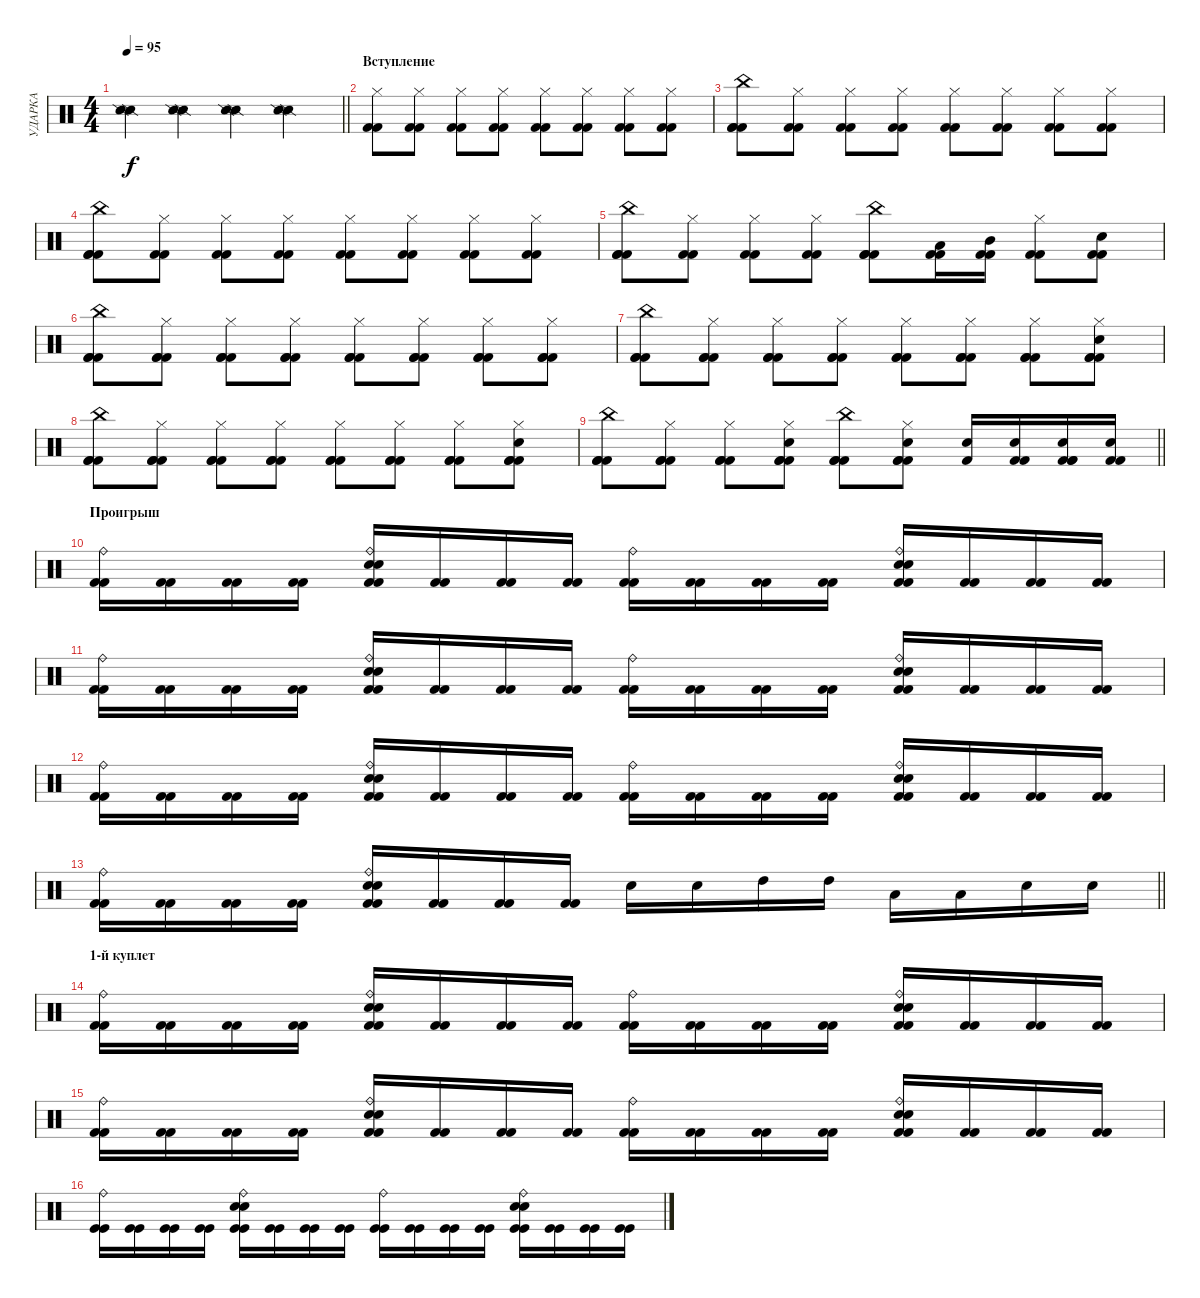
\track ("УДАРКА" "УДАРКА") {solo instrument percussion}
\staff {score}
\articulation defaults
\ts (4 4)
\tempo 95
\clef neutral
\barLineRight lightlight
\ks c
("Snare (side stick) 2" "Snare (side stick) 2").4{dy f} ("Snare (side stick) 2" "Snare (side stick) 2").4 ("Snare (side stick) 2" "Snare (side stick) 2").4 ("Snare (side stick) 2" "Snare (side stick) 2").4 |
\section ("" "Вступление")
("Hi-Hat (closed)" "Kick (hit) 2" "Kick (hit) 2").8 ("Hi-Hat (closed)" "Kick (hit) 2" "Kick (hit) 2").8 ("Hi-Hat (closed)" "Kick (hit) 2" "Kick (hit) 2").8 ("Hi-Hat (closed)" "Kick (hit) 2" "Kick (hit) 2").8 ("Hi-Hat (closed)" "Kick (hit) 2" "Kick (hit) 2").8 ("Hi-Hat (closed)" "Kick (hit) 2" "Kick (hit) 2").8 ("Hi-Hat (closed)" "Kick (hit) 2" "Kick (hit) 2").8 ("Hi-Hat (closed)" "Kick (hit) 2" "Kick (hit) 2").8 |
("China (hit)" "Kick (hit) 2" "Kick (hit) 2" "Kick (hit) 2").8 ("Hi-Hat (closed)" "Kick (hit) 2" "Kick (hit) 2").8 ("Hi-Hat (closed)" "Kick (hit) 2" "Kick (hit) 2").8 ("Hi-Hat (closed)" "Kick (hit) 2" "Kick (hit) 2").8 ("Hi-Hat (closed)" "Kick (hit) 2" "Kick (hit) 2").8 ("Hi-Hat (closed)" "Kick (hit) 2" "Kick (hit) 2").8 ("Hi-Hat (closed)" "Kick (hit) 2" "Kick (hit) 2").8 ("Hi-Hat (closed)" "Kick (hit) 2" "Kick (hit) 2").8 |
("China (hit)" "Kick (hit) 2" "Kick (hit) 2" "Kick (hit) 2").8 ("Hi-Hat (closed)" "Kick (hit) 2" "Kick (hit) 2").8 ("Hi-Hat (closed)" "Kick (hit) 2" "Kick (hit) 2").8 ("Hi-Hat (closed)" "Kick (hit) 2" "Kick (hit) 2").8 ("Hi-Hat (closed)" "Kick (hit) 2" "Kick (hit) 2").8 ("Hi-Hat (closed)" "Kick (hit) 2" "Kick (hit) 2").8 ("Hi-Hat (closed)" "Kick (hit) 2" "Kick (hit) 2").8 ("Hi-Hat (closed)" "Kick (hit) 2" "Kick (hit) 2").8 |
("China (hit)" "Kick (hit) 2" "Kick (hit) 2" "Kick (hit) 2").8 ("Hi-Hat (closed)" "Kick (hit) 2" "Kick (hit) 2").8 ("Hi-Hat (closed)" "Kick (hit) 2" "Kick (hit) 2").8 ("Hi-Hat (closed)" "Kick (hit) 2" "Kick (hit) 2").8 ("China (hit)" "Kick (hit) 2" "Kick (hit) 2" "Kick (hit) 2").8 ("Low Tom (hit)" "Kick (hit) 2" "Kick (hit) 2").16 ("Mid Tom (hit)" "Kick (hit) 2" "Kick (hit) 2").16 ("Hi-Hat (closed)" "Kick (hit) 2" "Kick (hit) 2").8 ("Electric Snare (hit)" "Kick (hit) 2" "Kick (hit) 2").8 |
("China (hit)" "Kick (hit) 2" "Kick (hit) 2" "Kick (hit) 2").8 ("Hi-Hat (closed)" "Kick (hit) 2" "Kick (hit) 2" "Kick (hit) 2").8 ("Hi-Hat (closed)" "Kick (hit) 2" "Kick (hit) 2" "Kick (hit) 2").8 ("Hi-Hat (closed)" "Kick (hit) 2" "Kick (hit) 2" "Kick (hit) 2").8 ("Hi-Hat (closed)" "Kick (hit) 2" "Kick (hit) 2" "Kick (hit) 2").8 ("Hi-Hat (closed)" "Kick (hit) 2" "Kick (hit) 2" "Kick (hit) 2").8 ("Hi-Hat (closed)" "Kick (hit) 2" "Kick (hit) 2" "Kick (hit) 2").8 ("Hi-Hat (closed)" "Kick (hit) 2" "Kick (hit) 2" "Kick (hit) 2").8 |
("China (hit)" "Kick (hit) 2" "Kick (hit) 2" "Kick (hit) 2").8 ("Hi-Hat (closed)" "Kick (hit) 2" "Kick (hit) 2" "Kick (hit) 2").8 ("Hi-Hat (closed)" "Kick (hit) 2" "Kick (hit) 2" "Kick (hit) 2").8 ("Hi-Hat (closed)" "Kick (hit) 2" "Kick (hit) 2" "Kick (hit) 2").8 ("Hi-Hat (closed)" "Kick (hit) 2" "Kick (hit) 2" "Kick (hit) 2").8 ("Hi-Hat (closed)" "Kick (hit) 2" "Kick (hit) 2" "Kick (hit) 2").8 ("Hi-Hat (closed)" "Kick (hit) 2" "Kick (hit) 2" "Kick (hit) 2").8 ("Hi-Hat (closed)" "Kick (hit) 2" "Electric Snare (hit)" "Kick (hit) 2" "Kick (hit) 2").8 |
("China (hit)" "Kick (hit) 2" "Kick (hit) 2" "Kick (hit) 2").8 ("Hi-Hat (closed)" "Kick (hit) 2" "Kick (hit) 2" "Kick (hit) 2").8 ("Hi-Hat (closed)" "Kick (hit) 2" "Kick (hit) 2" "Kick (hit) 2").8 ("Hi-Hat (closed)" "Kick (hit) 2" "Kick (hit) 2" "Kick (hit) 2").8 ("Hi-Hat (closed)" "Kick (hit) 2" "Kick (hit) 2" "Kick (hit) 2").8 ("Hi-Hat (closed)" "Kick (hit) 2" "Kick (hit) 2" "Kick (hit) 2").8 ("Hi-Hat (closed)" "Kick (hit) 2" "Kick (hit) 2" "Kick (hit) 2").8 ("Hi-Hat (closed)" "Kick (hit) 2" "Electric Snare (hit)" "Kick (hit) 2" "Kick (hit) 2").8 |
\barLineRight lightlight
("China (hit)" "Kick (hit) 2" "Kick (hit) 2" "Kick (hit) 2").8 ("Hi-Hat (closed)" "Kick (hit) 2" "Kick (hit) 2" "Kick (hit) 2").8 ("Hi-Hat (closed)" "Kick (hit) 2" "Kick (hit) 2" "Kick (hit) 2").8 ("Hi-Hat (closed)" "Kick (hit) 2" "Electric Snare (hit)" "Kick (hit) 2" "Kick (hit) 2").8 ("China (hit)" "Kick (hit) 2" "Kick (hit) 2" "Kick (hit) 2").8 ("Hi-Hat (closed)" "Kick (hit) 2" "Electric Snare (hit)" "Kick (hit) 2" "Kick (hit) 2").8 ("Kick (hit) 2" "Electric Snare (hit)").16 ("Electric Snare (hit)" "Kick (hit) 2" "Kick (hit) 2").16 ("Electric Snare (hit)" "Kick (hit) 2" "Kick (hit) 2" "Kick (hit) 2").16 ("Electric Snare (hit)" "Kick (hit) 2" "Kick (hit) 2").16 |
\section ("" "Проигрыш")
("Ride (bell)" "Kick (hit) 2" "Kick (hit) 2").16 ("Kick (hit) 2" "Kick (hit) 2").16 ("Kick (hit) 2" "Kick (hit) 2").16 ("Kick (hit) 2" "Kick (hit) 2").16 ("Ride (bell)" "Snare (hit) 2" "Snare (hit) 2" "Kick (hit) 2" "Kick (hit) 2").16 ("Kick (hit) 2" "Kick (hit) 2").16 ("Kick (hit) 2" "Kick (hit) 2").16 ("Kick (hit) 2" "Kick (hit) 2").16 ("Ride (bell)" "Kick (hit) 2" "Kick (hit) 2").16 ("Kick (hit) 2" "Kick (hit) 2").16 ("Kick (hit) 2" "Kick (hit) 2").16 ("Kick (hit) 2" "Kick (hit) 2").16 ("Ride (bell)" "Snare (hit) 2" "Snare (hit) 2" "Kick (hit) 2" "Kick (hit) 2").16 ("Kick (hit) 2" "Kick (hit) 2").16 ("Kick (hit) 2" "Kick (hit) 2").16 ("Kick (hit) 2" "Kick (hit) 2").16 |
("Ride (bell)" "Kick (hit) 2" "Kick (hit) 2").16 ("Kick (hit) 2" "Kick (hit) 2").16 ("Kick (hit) 2" "Kick (hit) 2").16 ("Kick (hit) 2" "Kick (hit) 2").16 ("Ride (bell)" "Snare (hit) 2" "Snare (hit) 2" "Kick (hit) 2" "Kick (hit) 2").16 ("Kick (hit) 2" "Kick (hit) 2").16 ("Kick (hit) 2" "Kick (hit) 2").16 ("Kick (hit) 2" "Kick (hit) 2").16 ("Ride (bell)" "Kick (hit) 2" "Kick (hit) 2").16 ("Kick (hit) 2" "Kick (hit) 2").16 ("Kick (hit) 2" "Kick (hit) 2").16 ("Kick (hit) 2" "Kick (hit) 2").16 ("Ride (bell)" "Snare (hit) 2" "Snare (hit) 2" "Kick (hit) 2" "Kick (hit) 2").16 ("Kick (hit) 2" "Kick (hit) 2").16 ("Kick (hit) 2" "Kick (hit) 2").16 ("Kick (hit) 2" "Kick (hit) 2").16 |
("Ride (bell)" "Kick (hit) 2" "Kick (hit) 2").16 ("Kick (hit) 2" "Kick (hit) 2").16 ("Kick (hit) 2" "Kick (hit) 2").16 ("Kick (hit) 2" "Kick (hit) 2").16 ("Ride (bell)" "Snare (hit) 2" "Snare (hit) 2" "Kick (hit) 2" "Kick (hit) 2").16 ("Kick (hit) 2" "Kick (hit) 2").16 ("Kick (hit) 2" "Kick (hit) 2").16 ("Kick (hit) 2" "Kick (hit) 2").16 ("Ride (bell)" "Kick (hit) 2" "Kick (hit) 2").16 ("Kick (hit) 2" "Kick (hit) 2").16 ("Kick (hit) 2" "Kick (hit) 2").16 ("Kick (hit) 2" "Kick (hit) 2").16 ("Ride (bell)" "Snare (hit) 2" "Snare (hit) 2" "Kick (hit) 2" "Kick (hit) 2").16 ("Kick (hit) 2" "Kick (hit) 2").16 ("Kick (hit) 2" "Kick (hit) 2").16 ("Kick (hit) 2" "Kick (hit) 2").16 |
\barLineRight lightlight
("Ride (bell)" "Kick (hit) 2" "Kick (hit) 2").16 ("Kick (hit) 2" "Kick (hit) 2").16 ("Kick (hit) 2" "Kick (hit) 2").16 ("Kick (hit) 2" "Kick (hit) 2").16 ("Ride (bell)" "Snare (hit) 2" "Snare (hit) 2" "Kick (hit) 2" "Kick (hit) 2").16 ("Kick (hit) 2" "Kick (hit) 2").16 ("Kick (hit) 2" "Kick (hit) 2").16 ("Kick (hit) 2" "Kick (hit) 2").16 "Electric Snare (hit)".16 "Electric Snare (hit)".16 "High Tom (hit)".16 "High Tom (hit)".16 "Low Tom (hit)".16 "Low Tom (hit)".16 "Electric Snare (hit)".16 "Electric Snare (hit)".16 |
\section ("" "1-й куплет")
("Ride (bell)" "Kick (hit) 2" "Kick (hit) 2").16 ("Kick (hit) 2" "Kick (hit) 2").16 ("Kick (hit) 2" "Kick (hit) 2").16 ("Kick (hit) 2" "Kick (hit) 2").16 ("Ride (bell)" "Snare (hit) 2" "Snare (hit) 2" "Kick (hit) 2" "Kick (hit) 2").16 ("Kick (hit) 2" "Kick (hit) 2").16 ("Kick (hit) 2" "Kick (hit) 2").16 ("Kick (hit) 2" "Kick (hit) 2").16 ("Ride (bell)" "Kick (hit) 2" "Kick (hit) 2").16 ("Kick (hit) 2" "Kick (hit) 2").16 ("Kick (hit) 2" "Kick (hit) 2").16 ("Kick (hit) 2" "Kick (hit) 2").16 ("Ride (bell)" "Snare (hit) 2" "Snare (hit) 2" "Kick (hit) 2" "Kick (hit) 2").16 ("Kick (hit) 2" "Kick (hit) 2").16 ("Kick (hit) 2" "Kick (hit) 2").16 ("Kick (hit) 2" "Kick (hit) 2").16 |
("Ride (bell)" "Kick (hit) 2" "Kick (hit) 2").16 ("Kick (hit) 2" "Kick (hit) 2").16 ("Kick (hit) 2" "Kick (hit) 2").16 ("Kick (hit) 2" "Kick (hit) 2").16 ("Ride (bell)" "Snare (hit) 2" "Snare (hit) 2" "Kick (hit) 2" "Kick (hit) 2").16 ("Kick (hit) 2" "Kick (hit) 2").16 ("Kick (hit) 2" "Kick (hit) 2").16 ("Kick (hit) 2" "Kick (hit) 2").16 ("Ride (bell)" "Kick (hit) 2" "Kick (hit) 2").16 ("Kick (hit) 2" "Kick (hit) 2").16 ("Kick (hit) 2" "Kick (hit) 2").16 ("Kick (hit) 2" "Kick (hit) 2").16 ("Ride (bell)" "Snare (hit) 2" "Snare (hit) 2" "Kick (hit) 2" "Kick (hit) 2").16 ("Kick (hit) 2" "Kick (hit) 2").16 ("Kick (hit) 2" "Kick (hit) 2").16 ("Kick (hit) 2" "Kick (hit) 2").16 |
("Ride (bell)" "Kick (hit)" "Kick (hit)").16 ("Kick (hit)" "Kick (hit)").16 ("Kick (hit)" "Kick (hit)").16 ("Kick (hit)" "Kick (hit)").16 ("Ride (bell)" "Snare (hit) 2" "Snare (hit) 2" "Kick (hit)" "Kick (hit)").16 ("Kick (hit)" "Kick (hit)").16 ("Kick (hit)" "Kick (hit)").16 ("Kick (hit)" "Kick (hit)").16 ("Ride (bell)" "Kick (hit)" "Kick (hit)").16 ("Kick (hit)" "Kick (hit)").16 ("Kick (hit)" "Kick (hit)").16 ("Kick (hit)" "Kick (hit)").16 ("Ride (bell)" "Snare (hit) 2" "Snare (hit) 2" "Kick (hit)" "Kick (hit)").16 ("Kick (hit)" "Kick (hit)").16 ("Kick (hit)" "Kick (hit)").16 ("Kick (hit)" "Kick (hit)").16
